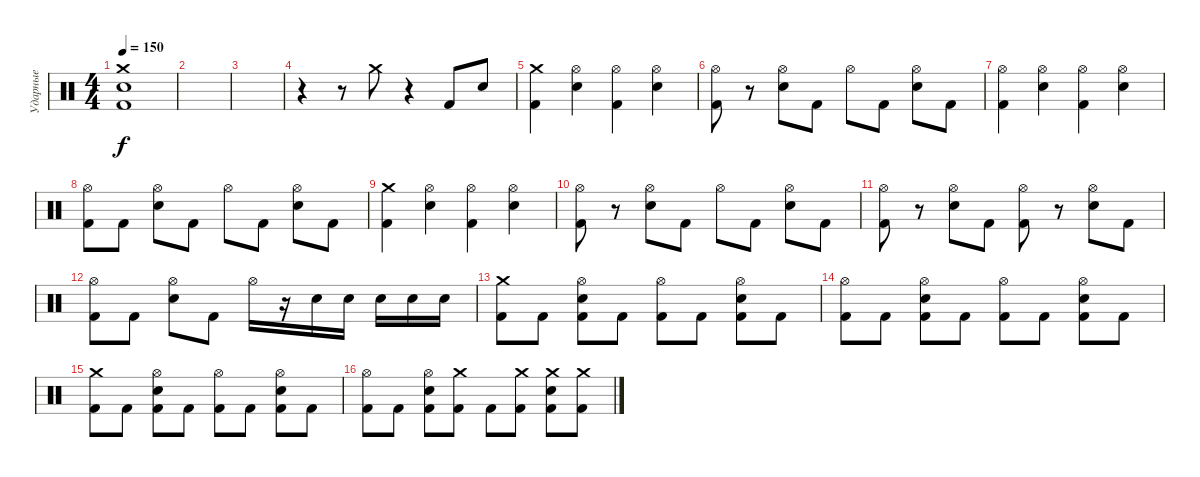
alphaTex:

\track ("Ударные" "Ударные") {instrument percussion}
\staff {score}
\articulation defaults
\ts (4 4)
\tempo 150
\clef neutral
\ks c
("Crash medium (hit)" "Electric Snare (hit)" "Kick (hit) 2").1{dy f} |
|
|
r.4 r.8 "Crash medium (hit)".8 r.4 "Kick (hit) 2".8 "Electric Snare (hit)".8 |
("Crash medium (hit)" "Kick (hit) 2").4 ("Hi-Hat (open)" "Electric Snare (hit)").4 ("Hi-Hat (open)" "Kick (hit) 2").4 ("Hi-Hat (open)" "Electric Snare (hit)").4 |
("Hi-Hat (open)" "Kick (hit) 2").8 r.8 ("Hi-Hat (open)" "Electric Snare (hit)").8 "Kick (hit) 2".8 "Hi-Hat (open)".8 "Kick (hit) 2".8 ("Hi-Hat (open)" "Electric Snare (hit)").8 "Kick (hit) 2".8 |
("Hi-Hat (open)" "Kick (hit) 2").4 ("Hi-Hat (open)" "Electric Snare (hit)").4 ("Hi-Hat (open)" "Kick (hit) 2").4 ("Hi-Hat (open)" "Electric Snare (hit)").4 |
("Hi-Hat (open)" "Kick (hit) 2").8 "Kick (hit) 2".8 ("Hi-Hat (open)" "Electric Snare (hit)").8 "Kick (hit) 2".8 "Hi-Hat (open)".8 "Kick (hit) 2".8 ("Hi-Hat (open)" "Electric Snare (hit)").8 "Kick (hit) 2".8 |
("Crash medium (hit)" "Kick (hit) 2").4 ("Hi-Hat (open)" "Electric Snare (hit)").4 ("Hi-Hat (open)" "Kick (hit) 2").4 ("Hi-Hat (open)" "Electric Snare (hit)").4 |
("Hi-Hat (open)" "Kick (hit) 2").8 r.8 ("Hi-Hat (open)" "Electric Snare (hit)").8 "Kick (hit) 2".8 "Hi-Hat (open)".8 "Kick (hit) 2".8 ("Hi-Hat (open)" "Electric Snare (hit)").8 "Kick (hit) 2".8 |
("Hi-Hat (open)" "Kick (hit) 2").8 r.8 ("Hi-Hat (open)" "Electric Snare (hit)").8 "Kick (hit) 2".8 ("Hi-Hat (open)" "Kick (hit) 2").8 r.8 ("Hi-Hat (open)" "Electric Snare (hit)").8 "Kick (hit) 2".8 |
("Hi-Hat (open)" "Kick (hit) 2").8 "Kick (hit) 2".8 ("Hi-Hat (open)" "Electric Snare (hit)").8 "Kick (hit) 2".8 "Hi-Hat (open)".16 r.16 "Electric Snare (hit)".16 "Electric Snare (hit)".16 "Electric Snare (hit)".16 "Electric Snare (hit)".16 "Electric Snare (hit)".16 |
("Crash medium (hit)" "Kick (hit) 2").8 "Kick (hit) 2".8 ("Hi-Hat (open)" "Electric Snare (hit)" "Kick (hit) 2").8 "Kick (hit) 2".8 ("Hi-Hat (open)" "Kick (hit) 2").8 "Kick (hit) 2".8 ("Hi-Hat (open)" "Electric Snare (hit)" "Kick (hit) 2").8 "Kick (hit) 2".8 |
("Hi-Hat (open)" "Kick (hit) 2").8 "Kick (hit) 2".8 ("Hi-Hat (open)" "Electric Snare (hit)" "Kick (hit) 2").8 "Kick (hit) 2".8 ("Hi-Hat (open)" "Kick (hit) 2").8 "Kick (hit) 2".8 ("Hi-Hat (open)" "Electric Snare (hit)" "Kick (hit) 2").8 "Kick (hit) 2".8 |
("Crash medium (hit)" "Kick (hit) 2").8 "Kick (hit) 2".8 ("Hi-Hat (open)" "Electric Snare (hit)" "Kick (hit) 2").8 "Kick (hit) 2".8 ("Hi-Hat (open)" "Kick (hit) 2").8 "Kick (hit) 2".8 ("Hi-Hat (open)" "Electric Snare (hit)" "Kick (hit) 2").8 "Kick (hit) 2".8 |
("Hi-Hat (open)" "Kick (hit) 2").8 "Kick (hit) 2".8 ("Hi-Hat (open)" "Electric Snare (hit)" "Kick (hit) 2").8 ("Crash medium (hit)" "Kick (hit) 2").8 "Kick (hit) 2".8 ("Crash medium (hit)" "Kick (hit) 2").8 ("Crash medium (hit)" "Electric Snare (hit)" "Kick (hit) 2").8 ("Crash medium (hit)" "Kick (hit) 2").8
